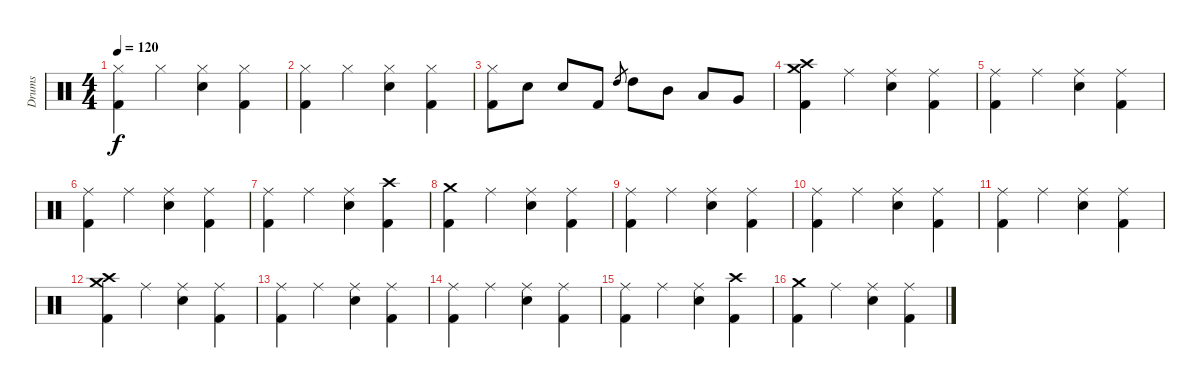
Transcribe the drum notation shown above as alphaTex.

\track ("Drums" "Drums") {instrument percussion}
\staff {score}
\articulation defaults
\ts (4 4)
\tempo 120
\clef neutral
\ks c
("Kick (hit) 2" "Hi-Hat (closed)").4{dy f} "Hi-Hat (closed)".4 ("Electric Snare (hit)" "Hi-Hat (closed)").4 ("Kick (hit) 2" "Hi-Hat (closed)").4 |
("Kick (hit) 2" "Hi-Hat (closed)").4 "Hi-Hat (closed)".4 ("Electric Snare (hit)" "Hi-Hat (closed)").4 ("Kick (hit) 2" "Hi-Hat (closed)").4 |
("Kick (hit) 2" "Hi-Hat (closed)").8 "Electric Snare (hit)".8 "Electric Snare (hit)".8 "Kick (hit) 2".8 "High Tom (hit)".8{gr} "High Tom (hit)".8 "Mid Tom (hit)".8 "Low Tom (hit)".8 "Very Low Tom (hit)".8 |
("Crash medium (hit)" "Crash high (hit)" "Kick (hit) 2").4 "Ride (middle)".4 ("Electric Snare (hit)" "Ride (middle)").4 ("Kick (hit) 2" "Ride (middle)").4 |
("Kick (hit) 2" "Ride (middle)").4 "Ride (middle)".4 ("Electric Snare (hit)" "Ride (middle)").4 ("Kick (hit) 2" "Ride (middle)").4 |
("Kick (hit) 2" "Ride (middle)").4 "Ride (middle)".4 ("Electric Snare (hit)" "Ride (middle)").4 ("Kick (hit) 2" "Ride (middle)").4 |
("Kick (hit) 2" "Ride (middle)").4 "Ride (middle)".4 ("Electric Snare (hit)" "Ride (middle)").4 ("Kick (hit) 2" "Crash high (hit)").4 |
("Crash medium (hit)" "Kick (hit) 2").4 "Ride (middle)".4 ("Ride (middle)" "Electric Snare (hit)").4 ("Ride (middle)" "Kick (hit) 2").4 |
("Ride (middle)" "Kick (hit) 2").4 "Ride (middle)".4 ("Ride (middle)" "Electric Snare (hit)").4 ("Ride (middle)" "Kick (hit) 2").4 |
("Ride (middle)" "Kick (hit) 2").4 "Ride (middle)".4 ("Ride (middle)" "Electric Snare (hit)").4 ("Ride (middle)" "Kick (hit) 2").4 |
("Kick (hit) 2" "Ride (middle)").4 "Ride (middle)".4 ("Electric Snare (hit)" "Ride (middle)").4 ("Kick (hit) 2" "Ride (middle)").4 |
("Crash medium (hit)" "Crash high (hit)" "Kick (hit) 2").4 "Ride (middle)".4 ("Electric Snare (hit)" "Ride (middle)").4 ("Kick (hit) 2" "Ride (middle)").4 |
("Kick (hit) 2" "Ride (middle)").4 "Ride (middle)".4 ("Electric Snare (hit)" "Ride (middle)").4 ("Kick (hit) 2" "Ride (middle)").4 |
("Kick (hit) 2" "Ride (middle)").4 "Ride (middle)".4 ("Electric Snare (hit)" "Ride (middle)").4 ("Kick (hit) 2" "Ride (middle)").4 |
("Kick (hit) 2" "Ride (middle)").4 "Ride (middle)".4 ("Electric Snare (hit)" "Ride (middle)").4 ("Kick (hit) 2" "Crash high (hit)").4 |
("Crash medium (hit)" "Kick (hit) 2").4 "Ride (middle)".4 ("Ride (middle)" "Electric Snare (hit)").4 ("Ride (middle)" "Kick (hit) 2").4
